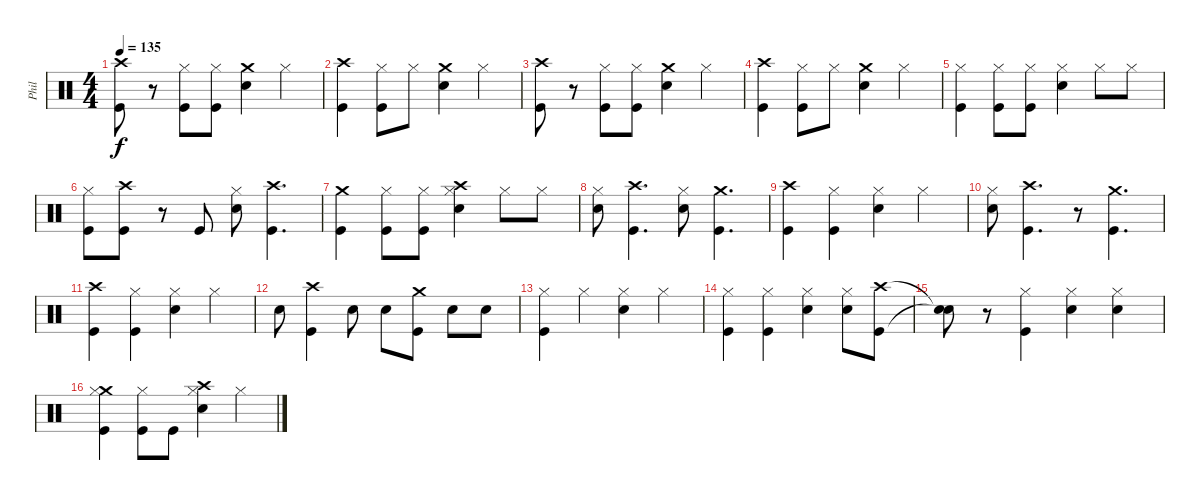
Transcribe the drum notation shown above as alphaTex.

\track ("Phil" "Phil") {instrument percussion}
\staff {score}
\articulation defaults
\ts (4 4)
\tempo 135
\clef neutral
\ks c
("Crash high (hit)" "Kick (hit)").8{dy f} r.8 ("Kick (hit)" "Hi-Hat (closed)").8 ("Kick (hit)" "Hi-Hat (closed)").8 ("Crash medium (hit)" "Snare (hit) 2").4 "Hi-Hat (closed)".4 |
("Crash high (hit)" "Kick (hit)").4 ("Hi-Hat (closed)" "Kick (hit)").8 "Hi-Hat (closed)".8 ("Crash medium (hit)" "Snare (hit) 2").4 "Hi-Hat (closed)".4 |
("Crash high (hit)" "Kick (hit)").8 r.8 ("Kick (hit)" "Hi-Hat (closed)").8 ("Kick (hit)" "Hi-Hat (closed)").8 ("Crash medium (hit)" "Snare (hit) 2").4 "Hi-Hat (closed)".4 |
("Crash high (hit)" "Kick (hit)").4 ("Hi-Hat (closed)" "Kick (hit)").8 "Hi-Hat (closed)".8 ("Crash medium (hit)" "Snare (hit) 2").4 "Hi-Hat (closed)".4 |
("Hi-Hat (closed)" "Kick (hit)").4 ("Hi-Hat (closed)" "Kick (hit)").8 ("Hi-Hat (closed)" "Kick (hit)").8 ("Hi-Hat (closed)" "Snare (hit) 2").4 "Hi-Hat (closed)".8 "Hi-Hat (closed)".8 |
("Kick (hit)" "Hi-Hat (closed)").8 ("Crash high (hit)" "Kick (hit)").8 r.8 "Kick (hit)".8 ("Hi-Hat (closed)" "Snare (hit) 2").8 ("Crash high (hit)" "Kick (hit)").4{d} |
("Crash medium (hit)" "Kick (hit)").4 ("Kick (hit)" "Hi-Hat (closed)").8 ("Kick (hit)" "Hi-Hat (closed)").8 ("Hi-Hat (closed)" "Crash high (hit)" "Snare (hit) 2").4 "Hi-Hat (closed)".8 "Hi-Hat (closed)".8 |
("Hi-Hat (closed)" "Snare (hit) 2").8 ("Kick (hit)" "Crash high (hit)").4{d} ("Hi-Hat (closed)" "Snare (hit) 2").8 ("Crash medium (hit)" "Kick (hit)").4{d} |
("Kick (hit)" "Crash high (hit)").4 ("Kick (hit)" "Hi-Hat (closed)").4 ("Snare (hit) 2" "Hi-Hat (closed)").4 "Hi-Hat (closed)".4 |
("Hi-Hat (closed)" "Snare (hit) 2").8 ("Kick (hit)" "Crash high (hit)").4{d} r.8 ("Kick (hit)" "Crash medium (hit)").4{d} |
("Kick (hit)" "Crash high (hit)").4 ("Kick (hit)" "Hi-Hat (closed)").4 ("Snare (hit) 2" "Hi-Hat (closed)").4 "Hi-Hat (closed)".4 |
"Snare (hit) 2".8 ("Kick (hit)" "Crash high (hit)").4 "Snare (hit) 2".8 "Snare (hit) 2".8 ("Kick (hit)" "Crash medium (hit)").8 "Snare (hit) 2".8 "Snare (hit) 2".8 |
("Kick (hit)" "Hi-Hat (closed)").4 "Hi-Hat (closed)".4 ("Snare (hit) 2" "Hi-Hat (closed)").4 "Hi-Hat (closed)".4 |
("Kick (hit)" "Hi-Hat (closed)").4 ("Kick (hit)" "Hi-Hat (closed)").4 ("Snare (hit) 2" "Hi-Hat (closed)").4 ("Snare (hit) 2" "Hi-Hat (closed)").8 ("Kick (hit)" "Crash high (hit)").8 |
("Snare (hit)"{t} "Snare (hit)"{t}).8 r.8 ("Kick (hit)" "Hi-Hat (closed)").4 ("Snare (hit) 2" "Hi-Hat (closed)").4 ("Snare (hit) 2" "Hi-Hat (closed)").4 |
("Crash medium (hit)" "Kick (hit)" "Hi-Hat (closed)").4 ("Kick (hit)" "Hi-Hat (closed)").8 "Kick (hit)".8 ("Crash high (hit)" "Snare (hit) 2" "Hi-Hat (closed)").4 "Hi-Hat (closed)".4
